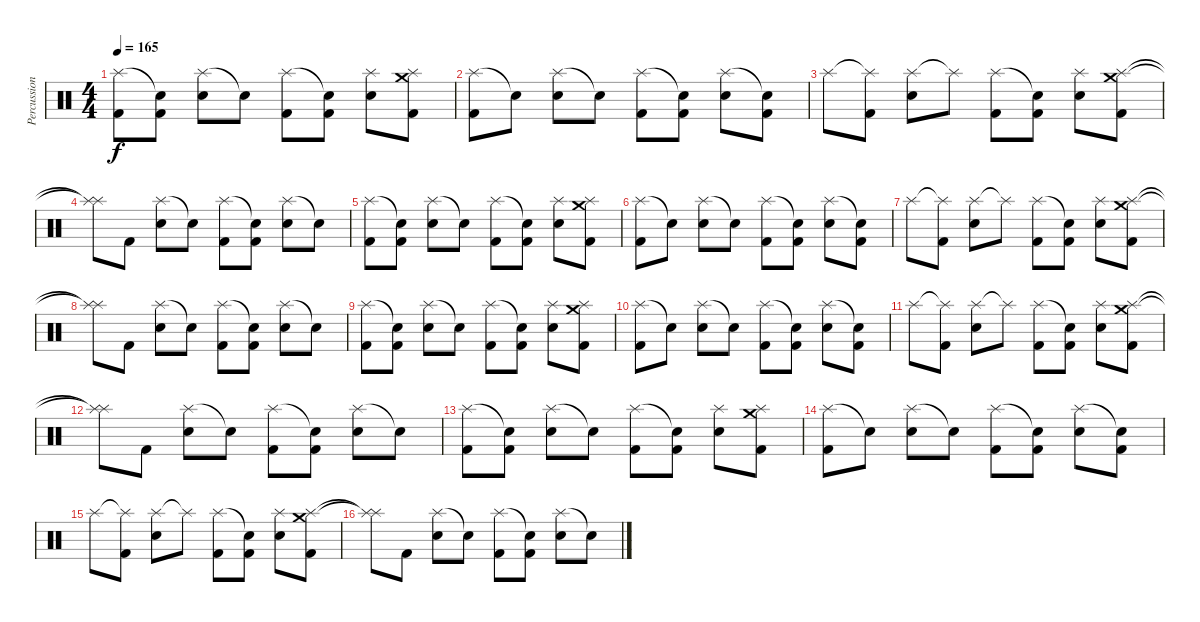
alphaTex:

\track ("Percussion" "Percussion") {instrument percussion}
\staff {score}
\articulation defaults
\ts (4 4)
\tempo 165
\clef neutral
\ks c
("Splash (hit)" "Kick (hit) 2").8{dy f} ("Snare (hit)"{t} "Kick (hit) 2").8 ("Splash (hit)" "Electric Snare (hit)").8 "Snare (hit)"{t}.8 ("Splash (hit)" "Kick (hit) 2").8 ("Snare (hit)"{t} "Kick (hit) 2").8 ("Splash (hit)" "Electric Snare (hit)").8 ("Crash medium (hit)" "Splash (hit)" "Kick (hit) 2").8 |
("Splash (hit)" "Kick (hit) 2").8 "Snare (hit)"{t}.8 ("Splash (hit)" "Electric Snare (hit)").8 "Snare (hit)"{t}.8 ("Splash (hit)" "Kick (hit) 2").8 ("Snare (hit)"{t} "Kick (hit) 2").8 ("Splash (hit)" "Electric Snare (hit)").8 ("Snare (hit)"{t} "Kick (hit) 2").8 |
"Splash (hit)".8 ("Splash (hit)"{t} "Kick (hit) 2").8 ("Splash (hit)" "Electric Snare (hit)").8 "Splash (hit)"{t}.8 ("Splash (hit)" "Kick (hit) 2").8 ("Snare (hit)"{t} "Kick (hit) 2").8 ("Splash (hit)" "Electric Snare (hit)").8 ("Crash medium (hit)" "Splash (hit)" "Kick (hit) 2").8 |
("Splash (hit)"{t} "Splash (hit)"{t}).8 "Kick (hit) 2".8 ("Splash (hit)" "Electric Snare (hit)").8 "Snare (hit)"{t}.8 ("Splash (hit)" "Kick (hit) 2").8 ("Snare (hit)"{t} "Kick (hit) 2").8 ("Splash (hit)" "Electric Snare (hit)").8 "Snare (hit)"{t}.8 |
("Splash (hit)" "Kick (hit) 2").8 ("Snare (hit)"{t} "Kick (hit) 2").8 ("Splash (hit)" "Electric Snare (hit)").8 "Snare (hit)"{t}.8 ("Splash (hit)" "Kick (hit) 2").8 ("Snare (hit)"{t} "Kick (hit) 2").8 ("Splash (hit)" "Electric Snare (hit)").8 ("Crash medium (hit)" "Splash (hit)" "Kick (hit) 2").8 |
("Splash (hit)" "Kick (hit) 2").8 "Snare (hit)"{t}.8 ("Splash (hit)" "Electric Snare (hit)").8 "Snare (hit)"{t}.8 ("Splash (hit)" "Kick (hit) 2").8 ("Snare (hit)"{t} "Kick (hit) 2").8 ("Splash (hit)" "Electric Snare (hit)").8 ("Snare (hit)"{t} "Kick (hit) 2").8 |
"Splash (hit)".8 ("Splash (hit)"{t} "Kick (hit) 2").8 ("Splash (hit)" "Electric Snare (hit)").8 "Splash (hit)"{t}.8 ("Splash (hit)" "Kick (hit) 2").8 ("Snare (hit)"{t} "Kick (hit) 2").8 ("Splash (hit)" "Electric Snare (hit)").8 ("Crash medium (hit)" "Splash (hit)" "Kick (hit) 2").8 |
("Splash (hit)"{t} "Splash (hit)"{t}).8 "Kick (hit) 2".8 ("Splash (hit)" "Electric Snare (hit)").8 "Snare (hit)"{t}.8 ("Splash (hit)" "Kick (hit) 2").8 ("Snare (hit)"{t} "Kick (hit) 2").8 ("Splash (hit)" "Electric Snare (hit)").8 "Snare (hit)"{t}.8 |
("Splash (hit)" "Kick (hit) 2").8 ("Snare (hit)"{t} "Kick (hit) 2").8 ("Splash (hit)" "Electric Snare (hit)").8 "Snare (hit)"{t}.8 ("Splash (hit)" "Kick (hit) 2").8 ("Snare (hit)"{t} "Kick (hit) 2").8 ("Splash (hit)" "Electric Snare (hit)").8 ("Crash medium (hit)" "Splash (hit)" "Kick (hit) 2").8 |
("Splash (hit)" "Kick (hit) 2").8 "Snare (hit)"{t}.8 ("Splash (hit)" "Electric Snare (hit)").8 "Snare (hit)"{t}.8 ("Splash (hit)" "Kick (hit) 2").8 ("Snare (hit)"{t} "Kick (hit) 2").8 ("Splash (hit)" "Electric Snare (hit)").8 ("Snare (hit)"{t} "Kick (hit) 2").8 |
"Splash (hit)".8 ("Splash (hit)"{t} "Kick (hit) 2").8 ("Splash (hit)" "Electric Snare (hit)").8 "Splash (hit)"{t}.8 ("Splash (hit)" "Kick (hit) 2").8 ("Snare (hit)"{t} "Kick (hit) 2").8 ("Splash (hit)" "Electric Snare (hit)").8 ("Crash medium (hit)" "Splash (hit)" "Kick (hit) 2").8 |
("Splash (hit)"{t} "Splash (hit)"{t}).8 "Kick (hit) 2".8 ("Splash (hit)" "Electric Snare (hit)").8 "Snare (hit)"{t}.8 ("Splash (hit)" "Kick (hit) 2").8 ("Snare (hit)"{t} "Kick (hit) 2").8 ("Splash (hit)" "Electric Snare (hit)").8 "Snare (hit)"{t}.8 |
("Splash (hit)" "Kick (hit) 2").8 ("Snare (hit)"{t} "Kick (hit) 2").8 ("Splash (hit)" "Electric Snare (hit)").8 "Snare (hit)"{t}.8 ("Splash (hit)" "Kick (hit) 2").8 ("Snare (hit)"{t} "Kick (hit) 2").8 ("Splash (hit)" "Electric Snare (hit)").8 ("Crash medium (hit)" "Splash (hit)" "Kick (hit) 2").8 |
("Splash (hit)" "Kick (hit) 2").8 "Snare (hit)"{t}.8 ("Splash (hit)" "Electric Snare (hit)").8 "Snare (hit)"{t}.8 ("Splash (hit)" "Kick (hit) 2").8 ("Snare (hit)"{t} "Kick (hit) 2").8 ("Splash (hit)" "Electric Snare (hit)").8 ("Snare (hit)"{t} "Kick (hit) 2").8 |
"Splash (hit)".8 ("Splash (hit)"{t} "Kick (hit) 2").8 ("Splash (hit)" "Electric Snare (hit)").8 "Splash (hit)"{t}.8 ("Splash (hit)" "Kick (hit) 2").8 ("Snare (hit)"{t} "Kick (hit) 2").8 ("Splash (hit)" "Electric Snare (hit)").8 ("Crash medium (hit)" "Splash (hit)" "Kick (hit) 2").8 |
("Splash (hit)"{t} "Splash (hit)"{t}).8 "Kick (hit) 2".8 ("Splash (hit)" "Electric Snare (hit)").8 "Snare (hit)"{t}.8 ("Splash (hit)" "Kick (hit) 2").8 ("Snare (hit)"{t} "Kick (hit) 2").8 ("Splash (hit)" "Electric Snare (hit)").8 "Snare (hit)"{t}.8
